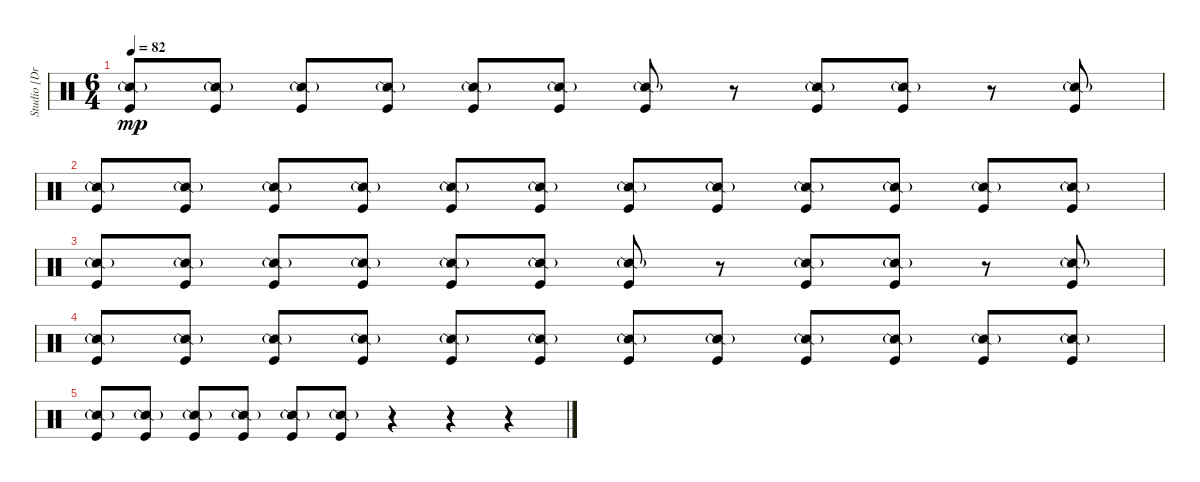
\track ("Studio [Drums FX]" "Studio [Dr") {instrument percussion}
\staff {score}
\articulation defaults
\ts (6 4)
\tempo 82
\clef neutral
\ks c
("Snare (side stick) 2"{g} "Kick (hit)").8{dy mp} ("Snare (side stick) 2"{g} "Kick (hit)").8 ("Snare (side stick) 2"{g} "Kick (hit)").8 ("Snare (side stick) 2"{g} "Kick (hit)").8 ("Snare (side stick) 2"{g} "Kick (hit)").8 ("Snare (side stick) 2"{g} "Kick (hit)").8 ("Snare (side stick) 2"{g} "Kick (hit)").8 r.8 ("Snare (side stick) 2"{g} "Kick (hit)").8 ("Snare (side stick) 2"{g} "Kick (hit)").8 r.8 ("Snare (side stick) 2"{g} "Kick (hit)").8 |
("Snare (side stick) 2"{g} "Kick (hit)").8 ("Snare (side stick) 2"{g} "Kick (hit)").8 ("Snare (side stick) 2"{g} "Kick (hit)").8 ("Snare (side stick) 2"{g} "Kick (hit)").8 ("Snare (side stick) 2"{g} "Kick (hit)").8 ("Snare (side stick) 2"{g} "Kick (hit)").8 ("Snare (side stick) 2"{g} "Kick (hit)").8 ("Snare (side stick) 2"{g} "Kick (hit)").8 ("Snare (side stick) 2"{g} "Kick (hit)").8 ("Snare (side stick) 2"{g} "Kick (hit)").8 ("Snare (side stick) 2"{g} "Kick (hit)").8 ("Snare (side stick) 2"{g} "Kick (hit)").8 |
("Snare (side stick) 2"{g} "Kick (hit)").8 ("Snare (side stick) 2"{g} "Kick (hit)").8 ("Snare (side stick) 2"{g} "Kick (hit)").8 ("Snare (side stick) 2"{g} "Kick (hit)").8 ("Snare (side stick) 2"{g} "Kick (hit)").8 ("Snare (side stick) 2"{g} "Kick (hit)").8 ("Snare (side stick) 2"{g} "Kick (hit)").8 r.8 ("Snare (side stick) 2"{g} "Kick (hit)").8 ("Snare (side stick) 2"{g} "Kick (hit)").8 r.8 ("Snare (side stick) 2"{g} "Kick (hit)").8 |
("Snare (side stick) 2"{g} "Kick (hit)").8 ("Snare (side stick) 2"{g} "Kick (hit)").8 ("Snare (side stick) 2"{g} "Kick (hit)").8 ("Snare (side stick) 2"{g} "Kick (hit)").8 ("Snare (side stick) 2"{g} "Kick (hit)").8 ("Snare (side stick) 2"{g} "Kick (hit)").8 ("Snare (side stick) 2"{g} "Kick (hit)").8 ("Snare (side stick) 2"{g} "Kick (hit)").8 ("Snare (side stick) 2"{g} "Kick (hit)").8 ("Snare (side stick) 2"{g} "Kick (hit)").8 ("Snare (side stick) 2"{g} "Kick (hit)").8 ("Snare (side stick) 2"{g} "Kick (hit)").8 |
("Snare (side stick) 2"{g} "Kick (hit)").8 ("Snare (side stick) 2"{g} "Kick (hit)").8 ("Snare (side stick) 2"{g} "Kick (hit)").8 ("Snare (side stick) 2"{g} "Kick (hit)").8 ("Snare (side stick) 2"{g} "Kick (hit)").8 ("Snare (side stick) 2"{g} "Kick (hit)").8 r.4 r.4 r.4
